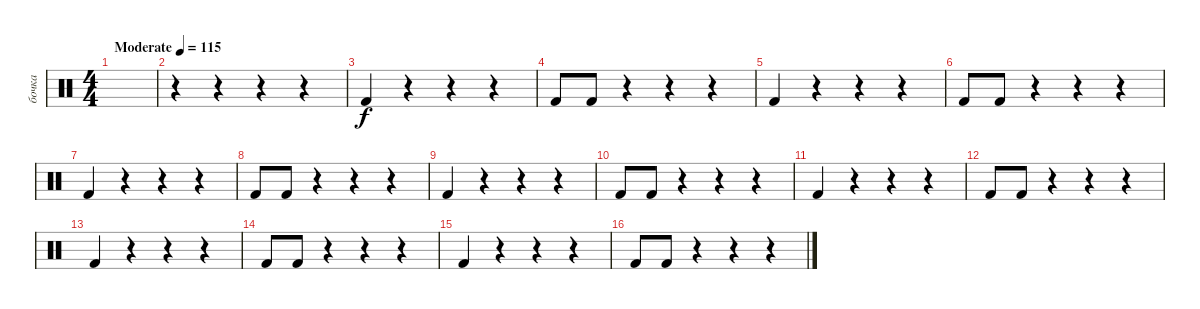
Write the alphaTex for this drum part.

\track ("бочка" "бочка") {mute instrument percussion}
\staff {score}
\articulation defaults
\ts (4 4)
\tempo (115 "Moderate")
\clef neutral
\ks c
|
r.4 r.4 r.4 r.4 |
"Kick (hit) 2".4 r.4 r.4 r.4 |
"Kick (hit) 2".8 "Kick (hit) 2".8 r.4 r.4 r.4 |
"Kick (hit) 2".4 r.4 r.4 r.4 |
"Kick (hit) 2".8 "Kick (hit) 2".8 r.4 r.4 r.4 |
"Kick (hit) 2".4 r.4 r.4 r.4 |
"Kick (hit) 2".8 "Kick (hit) 2".8 r.4 r.4 r.4 |
"Kick (hit) 2".4 r.4 r.4 r.4 |
"Kick (hit) 2".8 "Kick (hit) 2".8 r.4 r.4 r.4 |
"Kick (hit) 2".4 r.4 r.4 r.4 |
"Kick (hit) 2".8 "Kick (hit) 2".8 r.4 r.4 r.4 |
"Kick (hit) 2".4 r.4 r.4 r.4 |
"Kick (hit) 2".8 "Kick (hit) 2".8 r.4 r.4 r.4 |
"Kick (hit) 2".4 r.4 r.4 r.4 |
"Kick (hit) 2".8 "Kick (hit) 2".8 r.4 r.4 r.4
